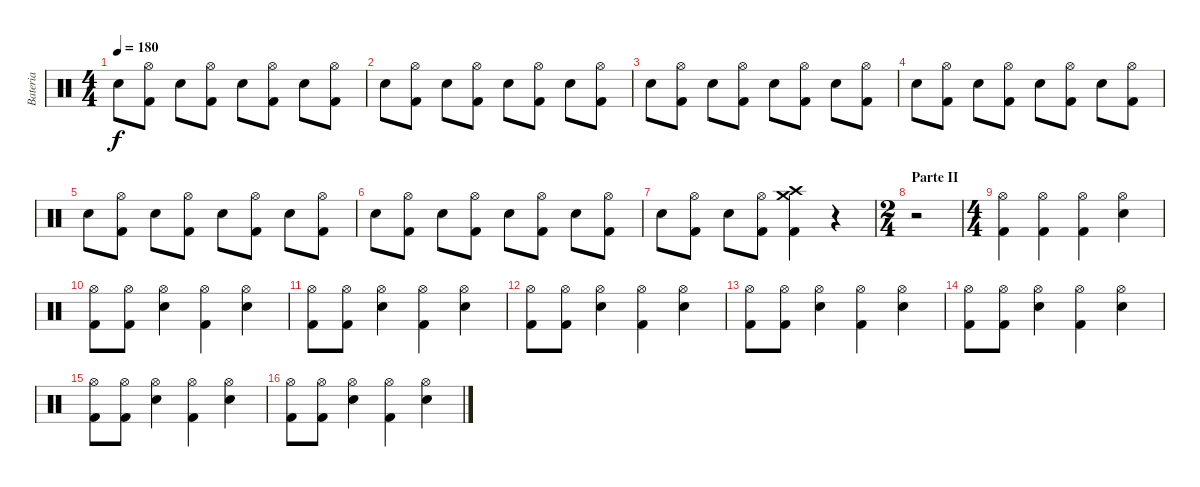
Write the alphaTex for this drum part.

\track ("Bateria" "Bateria") {instrument percussion}
\staff {score}
\articulation defaults
\ts (4 4)
\tempo 180
\clef neutral
\ks c "Electric Snare (hit)".8{dy f}
("Hi-Hat (open)" "Kick (hit) 2").8 "Electric Snare (hit)".8 ("Hi-Hat (open)" "Kick (hit) 2").8 "Electric Snare (hit)".8 ("Hi-Hat (open)" "Kick (hit) 2").8 "Electric Snare (hit)".8 ("Hi-Hat (open)" "Kick (hit) 2").8 |
"Electric Snare (hit)".8 ("Hi-Hat (open)" "Kick (hit) 2").8 "Electric Snare (hit)".8 ("Hi-Hat (open)" "Kick (hit) 2").8 "Electric Snare (hit)".8 ("Hi-Hat (open)" "Kick (hit) 2").8 "Electric Snare (hit)".8 ("Hi-Hat (open)" "Kick (hit) 2").8 |
"Electric Snare (hit)".8 ("Hi-Hat (open)" "Kick (hit) 2").8 "Electric Snare (hit)".8 ("Hi-Hat (open)" "Kick (hit) 2").8 "Electric Snare (hit)".8 ("Hi-Hat (open)" "Kick (hit) 2").8 "Electric Snare (hit)".8 ("Hi-Hat (open)" "Kick (hit) 2").8 |
"Electric Snare (hit)".8 ("Hi-Hat (open)" "Kick (hit) 2").8 "Electric Snare (hit)".8 ("Hi-Hat (open)" "Kick (hit) 2").8 "Electric Snare (hit)".8 ("Hi-Hat (open)" "Kick (hit) 2").8 "Electric Snare (hit)".8 ("Hi-Hat (open)" "Kick (hit) 2").8 |
"Electric Snare (hit)".8 ("Hi-Hat (open)" "Kick (hit) 2").8 "Electric Snare (hit)".8 ("Hi-Hat (open)" "Kick (hit) 2").8 "Electric Snare (hit)".8 ("Hi-Hat (open)" "Kick (hit) 2").8 "Electric Snare (hit)".8 ("Hi-Hat (open)" "Kick (hit) 2").8 |
"Electric Snare (hit)".8 ("Hi-Hat (open)" "Kick (hit) 2").8 "Electric Snare (hit)".8 ("Hi-Hat (open)" "Kick (hit) 2").8 "Electric Snare (hit)".8 ("Hi-Hat (open)" "Kick (hit) 2").8 "Electric Snare (hit)".8 ("Hi-Hat (open)" "Kick (hit) 2").8 |
"Electric Snare (hit)".8 ("Hi-Hat (open)" "Kick (hit) 2").8 "Electric Snare (hit)".8 ("Hi-Hat (open)" "Kick (hit) 2").8 ("Crash high (hit)" "Crash medium (hit)" "Kick (hit) 2").4 r.4 |
\ts (2 4)
\section ("" "Parte II")
r.2 |
\ts (4 4)
("Hi-Hat (open)" "Kick (hit) 2").4 ("Hi-Hat (open)" "Kick (hit) 2").4 ("Hi-Hat (open)" "Kick (hit) 2").4 ("Hi-Hat (open)" "Electric Snare (hit)").4 |
("Hi-Hat (open)" "Kick (hit) 2").8 ("Hi-Hat (open)" "Kick (hit) 2").8 ("Hi-Hat (open)" "Electric Snare (hit)").4 ("Hi-Hat (open)" "Kick (hit) 2").4 ("Hi-Hat (open)" "Electric Snare (hit)").4 |
("Hi-Hat (open)" "Kick (hit) 2").8 ("Hi-Hat (open)" "Kick (hit) 2").8 ("Hi-Hat (open)" "Electric Snare (hit)").4 ("Hi-Hat (open)" "Kick (hit) 2").4 ("Hi-Hat (open)" "Electric Snare (hit)").4 |
("Hi-Hat (open)" "Kick (hit) 2").8 ("Hi-Hat (open)" "Kick (hit) 2").8 ("Hi-Hat (open)" "Electric Snare (hit)").4 ("Hi-Hat (open)" "Kick (hit) 2").4 ("Hi-Hat (open)" "Electric Snare (hit)").4 |
("Hi-Hat (open)" "Kick (hit) 2").8 ("Hi-Hat (open)" "Kick (hit) 2").8 ("Hi-Hat (open)" "Electric Snare (hit)").4 ("Hi-Hat (open)" "Kick (hit) 2").4 ("Hi-Hat (open)" "Electric Snare (hit)").4 |
("Hi-Hat (open)" "Kick (hit) 2").8 ("Hi-Hat (open)" "Kick (hit) 2").8 ("Hi-Hat (open)" "Electric Snare (hit)").4 ("Hi-Hat (open)" "Kick (hit) 2").4 ("Hi-Hat (open)" "Electric Snare (hit)").4 |
("Hi-Hat (open)" "Kick (hit) 2").8 ("Hi-Hat (open)" "Kick (hit) 2").8 ("Hi-Hat (open)" "Electric Snare (hit)").4 ("Hi-Hat (open)" "Kick (hit) 2").4 ("Hi-Hat (open)" "Electric Snare (hit)").4 |
("Hi-Hat (open)" "Kick (hit) 2").8 ("Hi-Hat (open)" "Kick (hit) 2").8 ("Hi-Hat (open)" "Electric Snare (hit)").4 ("Hi-Hat (open)" "Kick (hit) 2").4 ("Hi-Hat (open)" "Electric Snare (hit)").4
